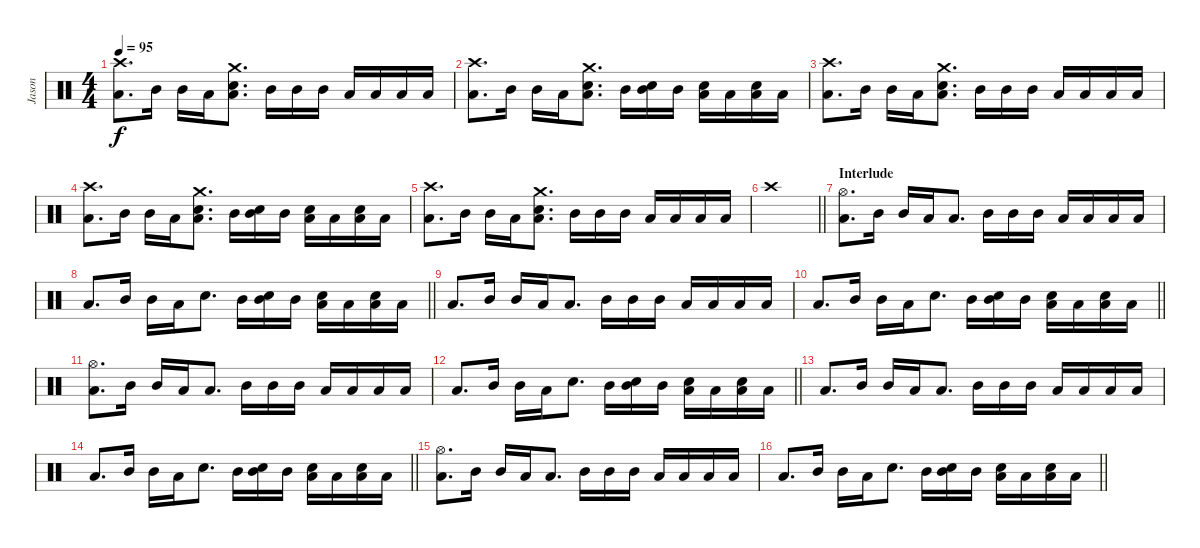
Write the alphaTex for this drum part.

\track ("Jason" "Jason") {instrument percussion}
\staff {score}
\articulation defaults
\ts (4 4)
\tempo 95
\clef neutral
\ks c
("Crash high (hit)" "Low Floor Tom (hit)").8{d dy f} "Mid Tom (hit)".16 "Mid Tom (hit)".16 "Low Tom (hit)".16 ("Crash medium (hit)" "Electric Snare (hit)" "Low Floor Tom (hit)").8{d} "Mid Tom (hit)".16 "Mid Tom (hit)".16 "Mid Tom (hit)".16 "Low Tom (hit)".16 "Low Tom (hit)".16 "Low Tom (hit)".16 "Low Tom (hit)".16 |
("Crash high (hit)" "Low Floor Tom (hit)").8{d} "Mid Tom (hit)".16 "Mid Tom (hit)".16 "Low Tom (hit)".16 ("Crash medium (hit)" "Electric Snare (hit)" "Low Floor Tom (hit)").8{d} "Mid Tom (hit)".16 ("Mid Tom (hit)" "Electric Snare (hit)").16 "Mid Tom (hit)".16 ("Low Tom (hit)" "Electric Snare (hit)").16 "Low Tom (hit)".16 ("Low Tom (hit)" "Electric Snare (hit)").16 "Low Tom (hit)".16 |
("Crash high (hit)" "Low Floor Tom (hit)").8{d} "Mid Tom (hit)".16 "Mid Tom (hit)".16 "Low Tom (hit)".16 ("Crash medium (hit)" "Electric Snare (hit)" "Low Floor Tom (hit)").8{d} "Mid Tom (hit)".16 "Mid Tom (hit)".16 "Mid Tom (hit)".16 "Low Tom (hit)".16 "Low Tom (hit)".16 "Low Tom (hit)".16 "Low Tom (hit)".16 |
("Crash high (hit)" "Low Floor Tom (hit)").8{d} "Mid Tom (hit)".16 "Mid Tom (hit)".16 "Low Tom (hit)".16 ("Crash medium (hit)" "Electric Snare (hit)" "Low Floor Tom (hit)").8{d} "Mid Tom (hit)".16 ("Mid Tom (hit)" "Electric Snare (hit)").16 "Mid Tom (hit)".16 ("Low Tom (hit)" "Electric Snare (hit)").16 "Low Tom (hit)".16 ("Low Tom (hit)" "Electric Snare (hit)").16 "Low Tom (hit)".16 |
("Crash high (hit)" "Low Floor Tom (hit)").8{d} "Mid Tom (hit)".16 "Mid Tom (hit)".16 "Low Tom (hit)".16 ("Crash medium (hit)" "Electric Snare (hit)" "Low Floor Tom (hit)").8{d} "Mid Tom (hit)".16 "Mid Tom (hit)".16 "Mid Tom (hit)".16 "Low Tom (hit)".16 "Low Tom (hit)".16 "Low Tom (hit)".16 "Low Tom (hit)".16 |
\barLineRight lightlight "Crash high (hit)".1
|
\section ("" "Interlude")
("Hi-Hat (open)" "Low Floor Tom (hit)").8{d} "Mid Tom (hit)".16 "Mid Tom (hit)".16 "Low Tom (hit)".16 "Low Floor Tom (hit)".8{d} "Mid Tom (hit)".16 "Mid Tom (hit)".16 "Mid Tom (hit)".16 "Low Tom (hit)".16 "Low Tom (hit)".16 "Low Tom (hit)".16 "Low Tom (hit)".16 |
\barLineRight lightlight "Low Floor Tom (hit)".8{d} "Mid Tom (hit)".16 "Mid Tom (hit)".16 "Low Tom (hit)".16 "Electric Snare (hit)".8{d} "Mid Tom (hit)".16
("Mid Tom (hit)" "Electric Snare (hit)").16 "Mid Tom (hit)".16 ("Low Tom (hit)" "Electric Snare (hit)").16 "Low Tom (hit)".16 ("Low Tom (hit)" "Electric Snare (hit)").16 "Low Tom (hit)".16 |
"Low Floor Tom (hit)".8{d} "Mid Tom (hit)".16 "Mid Tom (hit)".16 "Low Tom (hit)".16 "Low Floor Tom (hit)".8{d} "Mid Tom (hit)".16 "Mid Tom (hit)".16 "Mid Tom (hit)".16 "Low Tom (hit)".16 "Low Tom (hit)".16 "Low Tom (hit)".16 "Low Tom (hit)".16 |
\barLineRight lightlight "Low Floor Tom (hit)".8{d} "Mid Tom (hit)".16 "Mid Tom (hit)".16 "Low Tom (hit)".16 "Electric Snare (hit)".8{d} "Mid Tom (hit)".16
("Mid Tom (hit)" "Electric Snare (hit)").16 "Mid Tom (hit)".16 ("Low Tom (hit)" "Electric Snare (hit)").16 "Low Tom (hit)".16 ("Low Tom (hit)" "Electric Snare (hit)").16 "Low Tom (hit)".16 |
("Hi-Hat (open)" "Low Floor Tom (hit)").8{d} "Mid Tom (hit)".16 "Mid Tom (hit)".16 "Low Tom (hit)".16 "Low Floor Tom (hit)".8{d} "Mid Tom (hit)".16 "Mid Tom (hit)".16 "Mid Tom (hit)".16 "Low Tom (hit)".16 "Low Tom (hit)".16 "Low Tom (hit)".16 "Low Tom (hit)".16 |
\barLineRight lightlight "Low Floor Tom (hit)".8{d} "Mid Tom (hit)".16 "Mid Tom (hit)".16 "Low Tom (hit)".16 "Electric Snare (hit)".8{d} "Mid Tom (hit)".16
("Mid Tom (hit)" "Electric Snare (hit)").16 "Mid Tom (hit)".16 ("Low Tom (hit)" "Electric Snare (hit)").16 "Low Tom (hit)".16 ("Low Tom (hit)" "Electric Snare (hit)").16 "Low Tom (hit)".16 |
"Low Floor Tom (hit)".8{d} "Mid Tom (hit)".16 "Mid Tom (hit)".16 "Low Tom (hit)".16 "Low Floor Tom (hit)".8{d} "Mid Tom (hit)".16 "Mid Tom (hit)".16 "Mid Tom (hit)".16 "Low Tom (hit)".16 "Low Tom (hit)".16 "Low Tom (hit)".16 "Low Tom (hit)".16 |
\barLineRight lightlight "Low Floor Tom (hit)".8{d} "Mid Tom (hit)".16 "Mid Tom (hit)".16 "Low Tom (hit)".16 "Electric Snare (hit)".8{d} "Mid Tom (hit)".16
("Mid Tom (hit)" "Electric Snare (hit)").16 "Mid Tom (hit)".16 ("Low Tom (hit)" "Electric Snare (hit)").16 "Low Tom (hit)".16 ("Low Tom (hit)" "Electric Snare (hit)").16 "Low Tom (hit)".16 |
("Hi-Hat (open)" "Low Floor Tom (hit)").8{d} "Mid Tom (hit)".16 "Mid Tom (hit)".16 "Low Tom (hit)".16 "Low Floor Tom (hit)".8{d} "Mid Tom (hit)".16 "Mid Tom (hit)".16 "Mid Tom (hit)".16 "Low Tom (hit)".16 "Low Tom (hit)".16 "Low Tom (hit)".16 "Low Tom (hit)".16 |
\barLineRight lightlight "Low Floor Tom (hit)".8{d} "Mid Tom (hit)".16 "Mid Tom (hit)".16 "Low Tom (hit)".16 "Electric Snare (hit)".8{d} "Mid Tom (hit)".16
("Mid Tom (hit)" "Electric Snare (hit)").16 "Mid Tom (hit)".16 ("Low Tom (hit)" "Electric Snare (hit)").16 "Low Tom (hit)".16 ("Low Tom (hit)" "Electric Snare (hit)").16 "Low Tom (hit)".16
